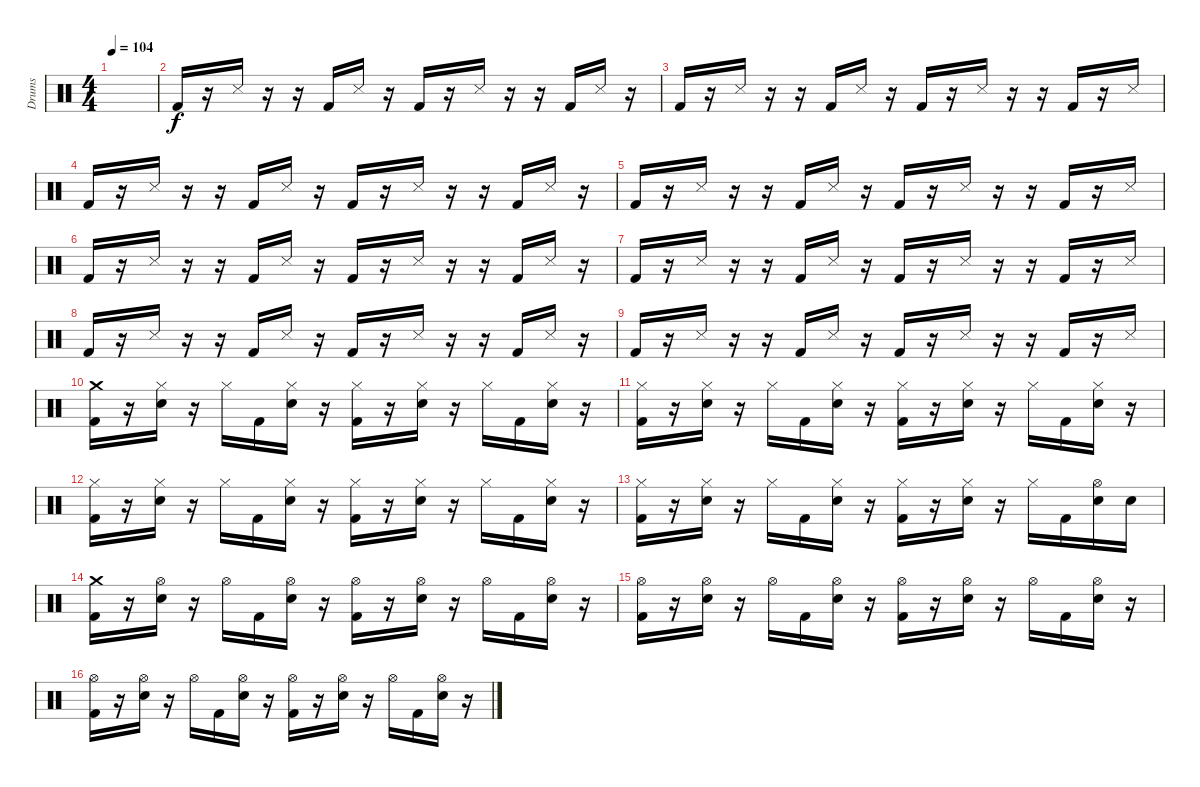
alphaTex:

\track ("Drums" "Drums") {instrument percussion}
\staff {score}
\articulation defaults
\ts (4 4)
\tempo 104
\clef neutral
\ks c
|
"Kick (hit) 2".16 r.16 "Snare (side stick) 3".16 r.16 r.16 "Kick (hit) 2".16 "Snare (side stick) 3".16 r.16 "Kick (hit) 2".16 r.16 "Snare (side stick) 3".16 r.16 r.16 "Kick (hit) 2".16 "Snare (side stick) 3".16 r.16 |
"Kick (hit) 2".16 r.16 "Snare (side stick) 3".16 r.16 r.16 "Kick (hit) 2".16 "Snare (side stick) 3".16 r.16 "Kick (hit) 2".16 r.16 "Snare (side stick) 3".16 r.16 r.16 "Kick (hit) 2".16 r.16 "Snare (side stick) 3".16 |
"Kick (hit) 2".16 r.16 "Snare (side stick) 3".16 r.16 r.16 "Kick (hit) 2".16 "Snare (side stick) 3".16 r.16 "Kick (hit) 2".16 r.16 "Snare (side stick) 3".16 r.16 r.16 "Kick (hit) 2".16 "Snare (side stick) 3".16 r.16 |
"Kick (hit) 2".16 r.16 "Snare (side stick) 3".16 r.16 r.16 "Kick (hit) 2".16 "Snare (side stick) 3".16 r.16 "Kick (hit) 2".16 r.16 "Snare (side stick) 3".16 r.16 r.16 "Kick (hit) 2".16 r.16 "Snare (side stick) 3".16 |
"Kick (hit) 2".16 r.16 "Snare (side stick) 3".16 r.16 r.16 "Kick (hit) 2".16 "Snare (side stick) 3".16 r.16 "Kick (hit) 2".16 r.16 "Snare (side stick) 3".16 r.16 r.16 "Kick (hit) 2".16 "Snare (side stick) 3".16 r.16 |
"Kick (hit) 2".16 r.16 "Snare (side stick) 3".16 r.16 r.16 "Kick (hit) 2".16 "Snare (side stick) 3".16 r.16 "Kick (hit) 2".16 r.16 "Snare (side stick) 3".16 r.16 r.16 "Kick (hit) 2".16 r.16 "Snare (side stick) 3".16 |
"Kick (hit) 2".16 r.16 "Snare (side stick) 3".16 r.16 r.16 "Kick (hit) 2".16 "Snare (side stick) 3".16 r.16 "Kick (hit) 2".16 r.16 "Snare (side stick) 3".16 r.16 r.16 "Kick (hit) 2".16 "Snare (side stick) 3".16 r.16 |
"Kick (hit) 2".16 r.16 "Snare (side stick) 3".16 r.16 r.16 "Kick (hit) 2".16 "Snare (side stick) 3".16 r.16 "Kick (hit) 2".16 r.16 "Snare (side stick) 3".16 r.16 r.16 "Kick (hit) 2".16 r.16 "Snare (side stick) 3".16 |
("Crash medium (hit)" "Kick (hit) 2").16 r.16 ("Hi-Hat (closed)" "Snare (hit) 2").16 r.16 "Hi-Hat (closed)".16 "Kick (hit) 2".16 ("Hi-Hat (closed)" "Snare (hit) 2").16 r.16 ("Hi-Hat (closed)" "Kick (hit) 2").16 r.16 ("Hi-Hat (closed)" "Snare (hit) 2").16 r.16 "Hi-Hat (closed)".16 "Kick (hit) 2".16 ("Hi-Hat (closed)" "Snare (hit) 2").16 r.16 |
("Hi-Hat (closed)" "Kick (hit) 2").16 r.16 ("Hi-Hat (closed)" "Snare (hit) 2").16 r.16 "Hi-Hat (closed)".16 "Kick (hit) 2".16 ("Hi-Hat (closed)" "Snare (hit) 2").16 r.16 ("Hi-Hat (closed)" "Kick (hit) 2").16 r.16 ("Hi-Hat (closed)" "Snare (hit) 2").16 r.16 "Hi-Hat (closed)".16 "Kick (hit) 2".16 ("Hi-Hat (closed)" "Snare (hit) 2").16 r.16 |
("Hi-Hat (closed)" "Kick (hit) 2").16 r.16 ("Hi-Hat (closed)" "Snare (hit) 2").16 r.16 "Hi-Hat (closed)".16 "Kick (hit) 2".16 ("Hi-Hat (closed)" "Snare (hit) 2").16 r.16 ("Hi-Hat (closed)" "Kick (hit) 2").16 r.16 ("Hi-Hat (closed)" "Snare (hit) 2").16 r.16 "Hi-Hat (closed)".16 "Kick (hit) 2".16 ("Hi-Hat (closed)" "Snare (hit) 2").16 r.16 |
("Hi-Hat (closed)" "Kick (hit) 2").16 r.16 ("Hi-Hat (closed)" "Snare (hit) 2").16 r.16 "Hi-Hat (closed)".16 "Kick (hit) 2".16 ("Hi-Hat (closed)" "Snare (hit) 2").16 r.16 ("Hi-Hat (closed)" "Kick (hit) 2").16 r.16 ("Hi-Hat (closed)" "Snare (hit) 2").16 r.16 "Hi-Hat (closed)".16 "Kick (hit) 2".16 ("Hi-Hat (open)" "Snare (hit) 2").16 "Snare (hit) 2".16 |
("Crash medium (hit)" "Kick (hit) 2").16 r.16 ("Hi-Hat (open)" "Snare (hit) 2").16 r.16 "Hi-Hat (open)".16 "Kick (hit) 2".16 ("Hi-Hat (open)" "Snare (hit) 2").16 r.16 ("Hi-Hat (open)" "Kick (hit) 2").16 r.16 ("Hi-Hat (open)" "Snare (hit) 2").16 r.16 "Hi-Hat (open)".16 "Kick (hit) 2".16 ("Hi-Hat (open)" "Snare (hit) 2").16 r.16 |
("Hi-Hat (open)" "Kick (hit) 2").16 r.16 ("Hi-Hat (open)" "Snare (hit) 2").16 r.16 "Hi-Hat (open)".16 "Kick (hit) 2".16 ("Hi-Hat (open)" "Snare (hit) 2").16 r.16 ("Hi-Hat (open)" "Kick (hit) 2").16 r.16 ("Hi-Hat (open)" "Snare (hit) 2").16 r.16 "Hi-Hat (open)".16 "Kick (hit) 2".16 ("Hi-Hat (open)" "Snare (hit) 2").16 r.16 |
("Hi-Hat (open)" "Kick (hit) 2").16 r.16 ("Hi-Hat (open)" "Snare (hit) 2").16 r.16 "Hi-Hat (open)".16 "Kick (hit) 2".16 ("Hi-Hat (open)" "Snare (hit) 2").16 r.16 ("Hi-Hat (open)" "Kick (hit) 2").16 r.16 ("Hi-Hat (open)" "Snare (hit) 2").16 r.16 "Hi-Hat (open)".16 "Kick (hit) 2".16 ("Hi-Hat (open)" "Snare (hit) 2").16 r.16
